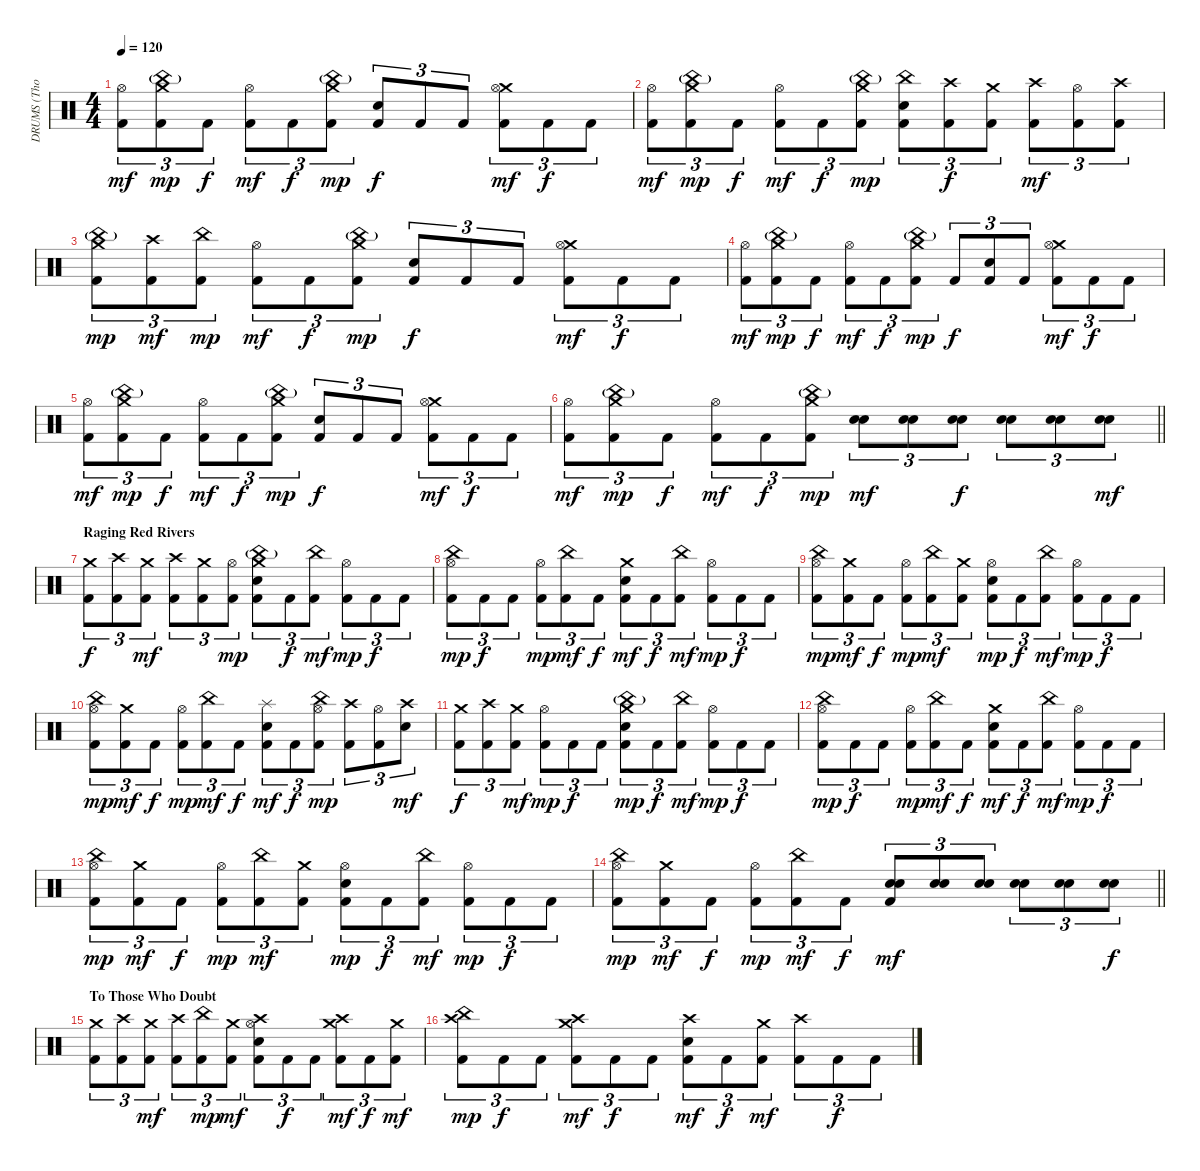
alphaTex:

\track ("DRUMS (Thomas Haake)" "DRUMS (Tho") {instrument percussion}
\staff {score}
\articulation defaults
\ts (4 4)
\tempo 120
\clef neutral
\ks c
("Hi-Hat (open)" "Kick (hit) 2").8{tu (3 2) dy mf} ("Crash medium (hit)" "China (hit)"{g} "Kick (hit) 2").8{tu (3 2) dy mp} "Kick (hit) 2".8{tu (3 2) dy f} ("Hi-Hat (open)" "Kick (hit) 2").8{tu (3 2) dy mf} "Kick (hit) 2".8{tu (3 2) dy f} ("Crash medium (hit)" "China (hit)"{g} "Kick (hit) 2").8{tu (3 2) dy mp} ("Electric Snare (hit)" "Kick (hit) 2").8{tu (3 2) dy f} "Kick (hit) 2".8{tu (3 2)} "Kick (hit) 2".8{tu (3 2)} ("Crash medium (hit)" "Hi-Hat (open)" "Kick (hit) 2").8{tu (3 2) dy mf} "Kick (hit) 2".8{tu (3 2) dy f} "Kick (hit) 2".8{tu (3 2)} |
("Hi-Hat (open)" "Kick (hit) 2").8{tu (3 2) dy mf} ("Crash medium (hit)" "China (hit)"{g} "Kick (hit) 2").8{tu (3 2) dy mp} "Kick (hit) 2".8{tu (3 2) dy f} ("Hi-Hat (open)" "Kick (hit) 2").8{tu (3 2) dy mf} "Kick (hit) 2".8{tu (3 2) dy f} ("Crash medium (hit)" "China (hit)"{g} "Kick (hit) 2").8{tu (3 2) dy mp} ("China (hit)" "Electric Snare (hit)" "Kick (hit) 2").8{tu (3 2)} ("Crash high (hit)" "Kick (hit) 2").8{tu (3 2) dy f} ("Crash medium (hit)" "Kick (hit) 2").8{tu (3 2)} ("Crash high (hit)" "Kick (hit) 2").8{tu (3 2) dy mf} ("Hi-Hat (open)" "Kick (hit) 2").8{tu (3 2)} ("Crash high (hit)" "Kick (hit) 2").8{tu (3 2)} |
("Crash medium (hit)" "China (hit)"{g} "Kick (hit) 2").8{tu (3 2) dy mp} ("Crash high (hit)" "Kick (hit) 2").8{tu (3 2) dy mf} ("China (hit)" "Kick (hit) 2").8{tu (3 2) dy mp} ("Hi-Hat (open)" "Kick (hit) 2").8{tu (3 2) dy mf} "Kick (hit) 2".8{tu (3 2) dy f} ("Crash medium (hit)" "China (hit)"{g} "Kick (hit) 2").8{tu (3 2) dy mp} ("Electric Snare (hit)" "Kick (hit) 2").8{tu (3 2) dy f} "Kick (hit) 2".8{tu (3 2)} "Kick (hit) 2".8{tu (3 2)} ("Crash medium (hit)" "Hi-Hat (open)" "Kick (hit) 2").8{tu (3 2) dy mf} "Kick (hit) 2".8{tu (3 2) dy f} "Kick (hit) 2".8{tu (3 2)} |
("Hi-Hat (open)" "Kick (hit) 2").8{tu (3 2) dy mf} ("Crash medium (hit)" "China (hit)"{g} "Kick (hit) 2").8{tu (3 2) dy mp} "Kick (hit) 2".8{tu (3 2) dy f} ("Hi-Hat (open)" "Kick (hit) 2").8{tu (3 2) dy mf} "Kick (hit) 2".8{tu (3 2) dy f} ("Crash medium (hit)" "China (hit)"{g} "Kick (hit) 2").8{tu (3 2) dy mp} "Kick (hit) 2".8{tu (3 2) dy f} ("Electric Snare (hit)" "Kick (hit) 2").8{tu (3 2)} "Kick (hit) 2".8{tu (3 2)} ("Crash medium (hit)" "Hi-Hat (open)" "Kick (hit) 2").8{tu (3 2) dy mf} "Kick (hit) 2".8{tu (3 2) dy f} "Kick (hit) 2".8{tu (3 2)} |
("Hi-Hat (open)" "Kick (hit) 2").8{tu (3 2) dy mf} ("Crash medium (hit)" "China (hit)"{g} "Kick (hit) 2").8{tu (3 2) dy mp} "Kick (hit) 2".8{tu (3 2) dy f} ("Hi-Hat (open)" "Kick (hit) 2").8{tu (3 2) dy mf} "Kick (hit) 2".8{tu (3 2) dy f} ("Crash medium (hit)" "China (hit)"{g} "Kick (hit) 2").8{tu (3 2) dy mp} ("Electric Snare (hit)" "Kick (hit) 2").8{tu (3 2) dy f} "Kick (hit) 2".8{tu (3 2)} "Kick (hit) 2".8{tu (3 2)} ("Crash medium (hit)" "Hi-Hat (open)" "Kick (hit) 2").8{tu (3 2) dy mf} "Kick (hit) 2".8{tu (3 2) dy f} "Kick (hit) 2".8{tu (3 2)} |
\barLineRight lightlight
("Hi-Hat (open)" "Kick (hit) 2").8{tu (3 2) dy mf} ("Crash medium (hit)" "China (hit)"{g} "Kick (hit) 2").8{tu (3 2) dy mp} "Kick (hit) 2".8{tu (3 2) dy f} ("Hi-Hat (open)" "Kick (hit) 2").8{tu (3 2) dy mf} "Kick (hit) 2".8{tu (3 2) dy f} ("Crash medium (hit)" "China (hit)"{g} "Kick (hit) 2").8{tu (3 2) dy mp} ("Electric Snare (hit)" "Electric Snare (hit)").8{tu (3 2) bd 60 dy mf} ("Electric Snare (hit)" "Electric Snare (hit)").8{tu (3 2)} ("Electric Snare (hit)" "Electric Snare (hit)").8{tu (3 2) bd 30 dy f} ("Electric Snare (hit)" "Electric Snare (hit)").8{tu (3 2)} ("Electric Snare (hit)" "Electric Snare (hit)").8{tu (3 2) bd 30} ("Electric Snare (hit)" "Electric Snare (hit)").8{tu (3 2) bd 60 dy mf} |
\section ("" "Raging Red Rivers")
("Crash medium (hit)" "Kick (hit) 2").8{tu (3 2) dy f} ("Crash high (hit)" "Kick (hit) 2").8{tu (3 2)} ("Crash medium (hit)" "Kick (hit) 2").8{tu (3 2) dy mf} ("Crash high (hit)" "Kick (hit) 2").8{tu (3 2)} ("Crash medium (hit)" "Kick (hit) 2").8{tu (3 2)} ("Hi-Hat (open)" "Kick (hit) 2").8{tu (3 2) dy mp} ("Crash medium (hit)" "China (hit)"{g} "Electric Snare (hit)" "Kick (hit) 2").8{tu (3 2)} "Kick (hit) 2".8{tu (3 2) dy f} ("China (hit)" "Kick (hit) 2").8{tu (3 2) dy mf} ("Hi-Hat (open)" "Kick (hit) 2").8{tu (3 2) dy mp} "Kick (hit) 2".8{tu (3 2) dy f} "Kick (hit) 2".8{tu (3 2)} |
("China (hit)" "Hi-Hat (open)" "Kick (hit) 2").8{tu (3 2) dy mp} "Kick (hit) 2".8{tu (3 2) dy f} "Kick (hit) 2".8{tu (3 2)} ("Hi-Hat (open)" "Kick (hit) 2").8{tu (3 2) dy mp} ("China (hit)" "Kick (hit) 2").8{tu (3 2) dy mf} "Kick (hit) 2".8{tu (3 2) dy f} ("Crash medium (hit)" "Electric Snare (hit)" "Kick (hit) 2").8{tu (3 2) dy mf} "Kick (hit) 2".8{tu (3 2) dy f} ("China (hit)" "Kick (hit) 2").8{tu (3 2) dy mf} ("Hi-Hat (open)" "Kick (hit) 2").8{tu (3 2) dy mp} "Kick (hit) 2".8{tu (3 2) dy f} "Kick (hit) 2".8{tu (3 2)} |
("China (hit)" "Hi-Hat (open)" "Kick (hit) 2").8{tu (3 2) dy mp} ("Crash medium (hit)" "Kick (hit) 2").8{tu (3 2) dy mf} "Kick (hit) 2".8{tu (3 2) dy f} ("Hi-Hat (open)" "Kick (hit) 2").8{tu (3 2) dy mp} ("China (hit)" "Kick (hit) 2").8{tu (3 2) dy mf} ("Crash medium (hit)" "Kick (hit) 2").8{tu (3 2)} ("Hi-Hat (open)" "Electric Snare (hit)" "Kick (hit) 2").8{tu (3 2) dy mp} "Kick (hit) 2".8{tu (3 2) dy f} ("China (hit)" "Kick (hit) 2").8{tu (3 2) dy mf} ("Hi-Hat (open)" "Kick (hit) 2").8{tu (3 2) dy mp} "Kick (hit) 2".8{tu (3 2) dy f} "Kick (hit) 2".8{tu (3 2)} |
("China (hit)" "Hi-Hat (open)" "Kick (hit) 2").8{tu (3 2) dy mp} ("Crash medium (hit)" "Kick (hit) 2").8{tu (3 2) dy mf} "Kick (hit) 2".8{tu (3 2) dy f} ("Hi-Hat (open)" "Kick (hit) 2").8{tu (3 2) dy mp} ("China (hit)" "Kick (hit) 2").8{tu (3 2) dy mf} "Kick (hit) 2".8{tu (3 2) dy f} ("Splash (hit)" "Electric Snare (hit)" "Kick (hit) 2").8{tu (3 2) dy mf} "Kick (hit) 2".8{tu (3 2) dy f} ("China (hit)" "Hi-Hat (open)" "Kick (hit) 2").8{tu (3 2) dy mp} ("Crash high (hit)" "Kick (hit) 2").8{tu (3 2)} ("Hi-Hat (open)" "Kick (hit) 2").8{tu (3 2)} ("Crash high (hit)" "Electric Snare (hit)").8{tu (3 2) dy mf} |
("Crash medium (hit)" "Kick (hit) 2").8{tu (3 2) dy f} ("Crash high (hit)" "Kick (hit) 2").8{tu (3 2)} ("Crash medium (hit)" "Kick (hit) 2").8{tu (3 2) dy mf} ("Hi-Hat (open)" "Kick (hit) 2").8{tu (3 2) dy mp} "Kick (hit) 2".8{tu (3 2) dy f} "Kick (hit) 2".8{tu (3 2)} ("Crash medium (hit)" "China (hit)"{g} "Electric Snare (hit)" "Kick (hit) 2").8{tu (3 2) dy mp} "Kick (hit) 2".8{tu (3 2) dy f} ("China (hit)" "Kick (hit) 2").8{tu (3 2) dy mf} ("Hi-Hat (open)" "Kick (hit) 2").8{tu (3 2) dy mp} "Kick (hit) 2".8{tu (3 2) dy f} "Kick (hit) 2".8{tu (3 2)} |
("China (hit)" "Hi-Hat (open)" "Kick (hit) 2").8{tu (3 2) dy mp} "Kick (hit) 2".8{tu (3 2) dy f} "Kick (hit) 2".8{tu (3 2)} ("Hi-Hat (open)" "Kick (hit) 2").8{tu (3 2) dy mp} ("China (hit)" "Kick (hit) 2").8{tu (3 2) dy mf} "Kick (hit) 2".8{tu (3 2) dy f} ("Crash medium (hit)" "Electric Snare (hit)" "Kick (hit) 2").8{tu (3 2) dy mf} "Kick (hit) 2".8{tu (3 2) dy f} ("China (hit)" "Kick (hit) 2").8{tu (3 2) dy mf} ("Hi-Hat (open)" "Kick (hit) 2").8{tu (3 2) dy mp} "Kick (hit) 2".8{tu (3 2) dy f} "Kick (hit) 2".8{tu (3 2)} |
("China (hit)" "Hi-Hat (open)" "Kick (hit) 2").8{tu (3 2) dy mp} ("Crash medium (hit)" "Kick (hit) 2").8{tu (3 2) dy mf} "Kick (hit) 2".8{tu (3 2) dy f} ("Hi-Hat (open)" "Kick (hit) 2").8{tu (3 2) dy mp} ("China (hit)" "Kick (hit) 2").8{tu (3 2) dy mf} ("Crash medium (hit)" "Kick (hit) 2").8{tu (3 2)} ("Hi-Hat (open)" "Electric Snare (hit)" "Kick (hit) 2").8{tu (3 2) dy mp} "Kick (hit) 2".8{tu (3 2) dy f} ("China (hit)" "Kick (hit) 2").8{tu (3 2) dy mf} ("Hi-Hat (open)" "Kick (hit) 2").8{tu (3 2) dy mp} "Kick (hit) 2".8{tu (3 2) dy f} "Kick (hit) 2".8{tu (3 2)} |
\barLineRight lightlight
("China (hit)" "Hi-Hat (open)" "Kick (hit) 2").8{tu (3 2) dy mp} ("Crash medium (hit)" "Kick (hit) 2").8{tu (3 2) dy mf} "Kick (hit) 2".8{tu (3 2) dy f} ("Hi-Hat (open)" "Kick (hit) 2").8{tu (3 2) dy mp} ("China (hit)" "Kick (hit) 2").8{tu (3 2) dy mf} "Kick (hit) 2".8{tu (3 2) dy f} ("Electric Snare (hit)" "Electric Snare (hit)" "Kick (hit) 2").8{tu (3 2) bd 60 dy mf} ("Electric Snare (hit)" "Electric Snare (hit)").8{tu (3 2)} ("Electric Snare (hit)" "Electric Snare (hit)").8{tu (3 2)} ("Electric Snare (hit)" "Electric Snare (hit)").8{tu (3 2)} ("Electric Snare (hit)" "Electric Snare (hit)").8{tu (3 2)} ("Electric Snare (hit)" "Electric Snare (hit)").8{tu (3 2) dy f} |
\section ("" "To Those Who Doubt")
("Crash medium (hit)" "Kick (hit) 2").8{tu (3 2)} ("Crash high (hit)" "Kick (hit) 2").8{tu (3 2)} ("Crash medium (hit)" "Kick (hit) 2").8{tu (3 2) dy mf} ("Crash high (hit)" "Kick (hit) 2").8{tu (3 2)} ("China (hit)" "Kick (hit) 2").8{tu (3 2) dy mp} ("Crash medium (hit)" "Kick (hit) 2").8{tu (3 2) dy mf} ("Hi-Hat (open)" "Crash high (hit)" "Electric Snare (hit)" "Kick (hit) 2").8{tu (3 2)} "Kick (hit) 2".8{tu (3 2) dy f} "Kick (hit) 2".8{tu (3 2)} ("Crash medium (hit)" "Crash high (hit)" "Kick (hit) 2").8{tu (3 2) dy mf} "Kick (hit) 2".8{tu (3 2) dy f} ("Crash medium (hit)" "Kick (hit) 2").8{tu (3 2) dy mf} |
("China (hit)" "Crash high (hit)" "Kick (hit) 2").8{tu (3 2) dy mp} "Kick (hit) 2".8{tu (3 2) dy f} "Kick (hit) 2".8{tu (3 2)} ("Crash medium (hit)" "Crash high (hit)" "Kick (hit) 2").8{tu (3 2) dy mf} "Kick (hit) 2".8{tu (3 2) dy f} "Kick (hit) 2".8{tu (3 2)} ("Crash high (hit)" "Electric Snare (hit)" "Kick (hit) 2").8{tu (3 2) dy mf} "Kick (hit) 2".8{tu (3 2) dy f} ("Crash medium (hit)" "Kick (hit) 2").8{tu (3 2) dy mf} ("Crash high (hit)" "Kick (hit) 2").8{tu (3 2)} "Kick (hit) 2".8{tu (3 2) dy f} "Kick (hit) 2".8{tu (3 2)}
